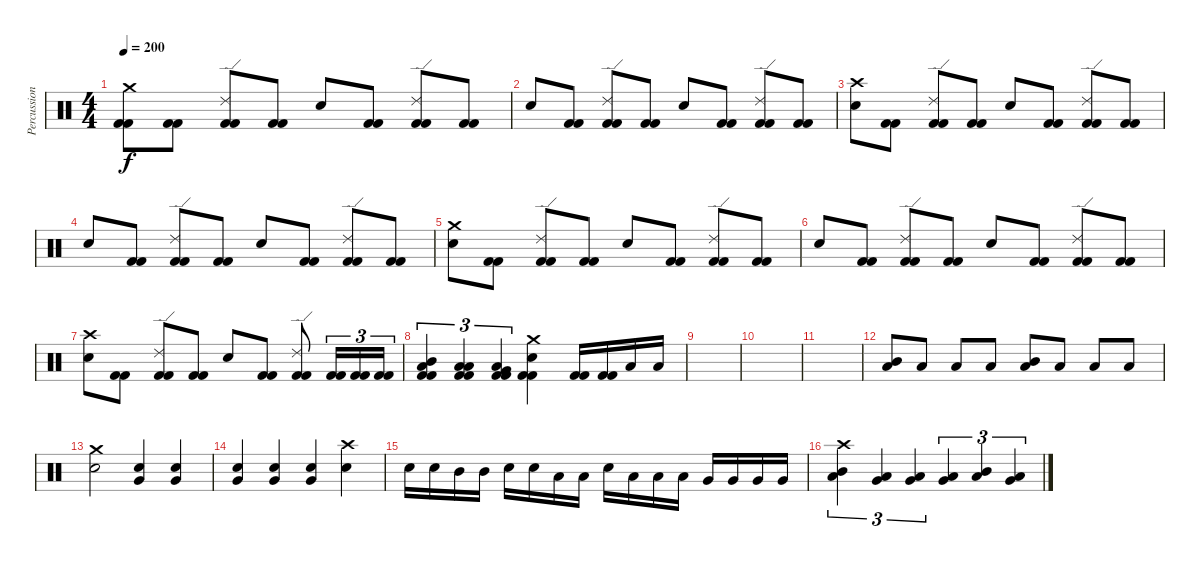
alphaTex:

\track ("Percussion" "Percussion") {instrument percussion}
\staff {score}
\articulation defaults
\ts (4 4)
\tempo 200
\clef neutral
\ks c
("Crash medium (hit)" "Kick (hit) 2" "Kick (hit) 2").8{dy f} ("Kick (hit) 2" "Kick (hit) 2").8 ("Kick (hit) 2" "Kick (hit) 2" "Ride (edge) 2").8 ("Kick (hit) 2" "Kick (hit) 2").8 "Electric Snare (hit)".8 ("Kick (hit) 2" "Kick (hit) 2").8 ("Kick (hit) 2" "Kick (hit) 2" "Ride (edge) 2").8 ("Kick (hit) 2" "Kick (hit) 2").8 |
"Electric Snare (hit)".8 ("Kick (hit) 2" "Kick (hit) 2").8 ("Kick (hit) 2" "Kick (hit) 2" "Ride (edge) 2").8 ("Kick (hit) 2" "Kick (hit) 2").8 "Electric Snare (hit)".8 ("Kick (hit) 2" "Kick (hit) 2").8 ("Kick (hit) 2" "Kick (hit) 2" "Ride (edge) 2").8 ("Kick (hit) 2" "Kick (hit) 2").8 |
("Electric Snare (hit)" "Crash high (hit)").8 ("Kick (hit) 2" "Kick (hit) 2").8 ("Kick (hit) 2" "Kick (hit) 2" "Ride (edge) 2").8 ("Kick (hit) 2" "Kick (hit) 2").8 "Electric Snare (hit)".8 ("Kick (hit) 2" "Kick (hit) 2").8 ("Kick (hit) 2" "Kick (hit) 2" "Ride (edge) 2").8 ("Kick (hit) 2" "Kick (hit) 2").8 |
"Electric Snare (hit)".8 ("Kick (hit) 2" "Kick (hit) 2").8 ("Kick (hit) 2" "Kick (hit) 2" "Ride (edge) 2").8 ("Kick (hit) 2" "Kick (hit) 2").8 "Electric Snare (hit)".8 ("Kick (hit) 2" "Kick (hit) 2").8 ("Kick (hit) 2" "Kick (hit) 2" "Ride (edge) 2").8 ("Kick (hit) 2" "Kick (hit) 2").8 |
("Electric Snare (hit)" "Crash medium (hit)").8 ("Kick (hit) 2" "Kick (hit) 2").8 ("Kick (hit) 2" "Kick (hit) 2" "Ride (edge) 2").8 ("Kick (hit) 2" "Kick (hit) 2").8 "Electric Snare (hit)".8 ("Kick (hit) 2" "Kick (hit) 2").8 ("Kick (hit) 2" "Kick (hit) 2" "Ride (edge) 2").8 ("Kick (hit) 2" "Kick (hit) 2").8 |
"Electric Snare (hit)".8 ("Kick (hit) 2" "Kick (hit) 2").8 ("Kick (hit) 2" "Kick (hit) 2" "Ride (edge) 2").8 ("Kick (hit) 2" "Kick (hit) 2").8 "Electric Snare (hit)".8 ("Kick (hit) 2" "Kick (hit) 2").8 ("Kick (hit) 2" "Kick (hit) 2" "Ride (edge) 2").8 ("Kick (hit) 2" "Kick (hit) 2").8 |
("Electric Snare (hit)" "Crash high (hit)").8 ("Kick (hit) 2" "Kick (hit) 2").8 ("Kick (hit) 2" "Kick (hit) 2" "Ride (edge) 2").8 ("Kick (hit) 2" "Kick (hit) 2").8 "Electric Snare (hit)".8 ("Kick (hit) 2" "Kick (hit) 2").8 ("Kick (hit) 2" "Kick (hit) 2" "Ride (edge) 2").8 ("Kick (hit) 2" "Kick (hit) 2").16{tu (3 2)} ("Kick (hit) 2" "Kick (hit) 2").16{tu (3 2)} ("Kick (hit) 2" "Kick (hit) 2").16{tu (3 2)} |
("Mid Tom (hit)" "Low Floor Tom (hit)" "Kick (hit) 2" "Kick (hit) 2").4{tu (3 2)} ("Low Tom (hit)" "Low Floor Tom (hit)" "Kick (hit) 2" "Kick (hit) 2").4{tu (3 2)} ("Very Low Tom (hit)" "Low Floor Tom (hit)" "Kick (hit) 2" "Kick (hit) 2").4{tu (3 2)} ("Kick (hit) 2" "Kick (hit) 2" "Electric Snare (hit)" "Crash medium (hit)").4 ("Kick (hit) 2" "Kick (hit) 2").16 ("Kick (hit) 2" "Kick (hit) 2").16 "Low Tom (hit)".16 "Low Tom (hit)".16 |
|
|
|
("Mid Tom (hit)" "Low Tom (hit)").8 "Low Tom (hit)".8 "Low Tom (hit)".8 "Low Tom (hit)".8 ("Mid Tom (hit)" "Low Tom (hit)").8 "Low Tom (hit)".8 "Low Tom (hit)".8 "Low Tom (hit)".8 |
("Electric Snare (hit)" "Crash medium (hit)").2 ("Electric Snare (hit)" "Very Low Tom (hit)").4 ("Electric Snare (hit)" "Very Low Tom (hit)").4 |
("Electric Snare (hit)" "Very Low Tom (hit)").4 ("Electric Snare (hit)" "Very Low Tom (hit)").4 ("Electric Snare (hit)" "Very Low Tom (hit)").4 ("Crash high (hit)" "Electric Snare (hit)").4 |
"Electric Snare (hit)".16 "Electric Snare (hit)".16 "Mid Tom (hit)".16 "Mid Tom (hit)".16 "Electric Snare (hit)".16 "Electric Snare (hit)".16 "Low Tom (hit)".16 "Low Tom (hit)".16 "Electric Snare (hit)".16 "Low Tom (hit)".16 "Low Tom (hit)".16 "Low Tom (hit)".16 "Very Low Tom (hit)".16 "Very Low Tom (hit)".16 "Very Low Tom (hit)".16 "Very Low Tom (hit)".16 |
("Mid Tom (hit)" "Low Tom (hit)" "Crash high (hit)").4{tu (3 2)} ("Low Tom (hit)" "Very Low Tom (hit)").4{tu (3 2)} ("Very Low Tom (hit)" "Low Floor Tom (hit)").4{tu (3 2)} ("Low Tom (hit)" "Very Low Tom (hit)").4{tu (3 2)} ("Mid Tom (hit)" "Low Tom (hit)").4{tu (3 2)} ("Low Tom (hit)" "Very Low Tom (hit)").4{tu (3 2)}
